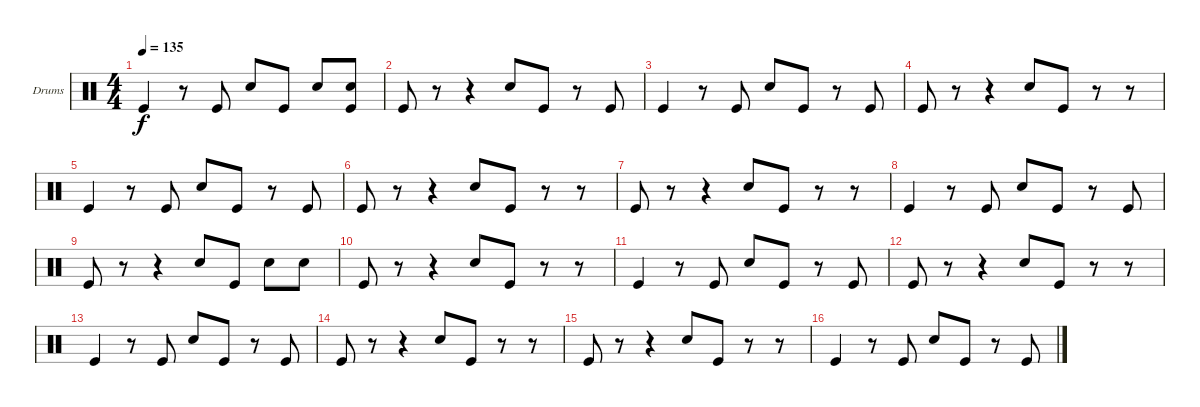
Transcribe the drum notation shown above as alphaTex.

\bracketExtendMode groupsimilarinstruments
\firstSystemTrackNameOrientation horizontal
\otherSystemsTrackNameOrientation horizontal
\track ("Drumkit" "Drums") {instrument percussion}
\staff {score}
\articulation defaults
\ts (4 4)
\tempo 135
\clef neutral
\ks c "Kick (hit)".4{dy f}
r.8 "Kick (hit)".8 "Snare (hit) 2".8 "Kick (hit)".8 "Snare (hit) 2".8 ("Snare (hit) 2" "Kick (hit)").8 |
"Kick (hit)".8 r.8 r.4 "Snare (hit) 2".8 "Kick (hit)".8 r.8 "Kick (hit)".8 |
"Kick (hit)".4 r.8 "Kick (hit)".8 "Snare (hit) 2".8 "Kick (hit)".8 r.8 "Kick (hit)".8 |
"Kick (hit)".8 r.8 r.4 "Snare (hit) 2".8 "Kick (hit)".8 r.8 r.8 |
"Kick (hit)".4 r.8 "Kick (hit)".8 "Snare (hit) 2".8 "Kick (hit)".8 r.8 "Kick (hit)".8 |
"Kick (hit)".8 r.8 r.4 "Snare (hit) 2".8 "Kick (hit)".8 r.8 r.8 |
"Kick (hit)".8 r.8 r.4 "Snare (hit) 2".8 "Kick (hit)".8 r.8 r.8 |
"Kick (hit)".4 r.8 "Kick (hit)".8 "Snare (hit) 2".8 "Kick (hit)".8 r.8 "Kick (hit)".8 |
"Kick (hit)".8 r.8 r.4 "Snare (hit) 2".8 "Kick (hit)".8 "Snare (hit) 2".8 "Snare (hit) 2".8 |
"Kick (hit)".8 r.8 r.4 "Snare (hit) 2".8 "Kick (hit)".8 r.8 r.8 |
"Kick (hit)".4 r.8 "Kick (hit)".8 "Snare (hit) 2".8 "Kick (hit)".8 r.8 "Kick (hit)".8 |
"Kick (hit)".8 r.8 r.4 "Snare (hit) 2".8 "Kick (hit)".8 r.8 r.8 |
"Kick (hit)".4 r.8 "Kick (hit)".8 "Snare (hit) 2".8 "Kick (hit)".8 r.8 "Kick (hit)".8 |
"Kick (hit)".8 r.8 r.4 "Snare (hit) 2".8 "Kick (hit)".8 r.8 r.8 |
"Kick (hit)".8 r.8 r.4 "Snare (hit) 2".8 "Kick (hit)".8 r.8 r.8 |
"Kick (hit)".4 r.8 "Kick (hit)".8 "Snare (hit) 2".8 "Kick (hit)".8 r.8 "Kick (hit)".8
